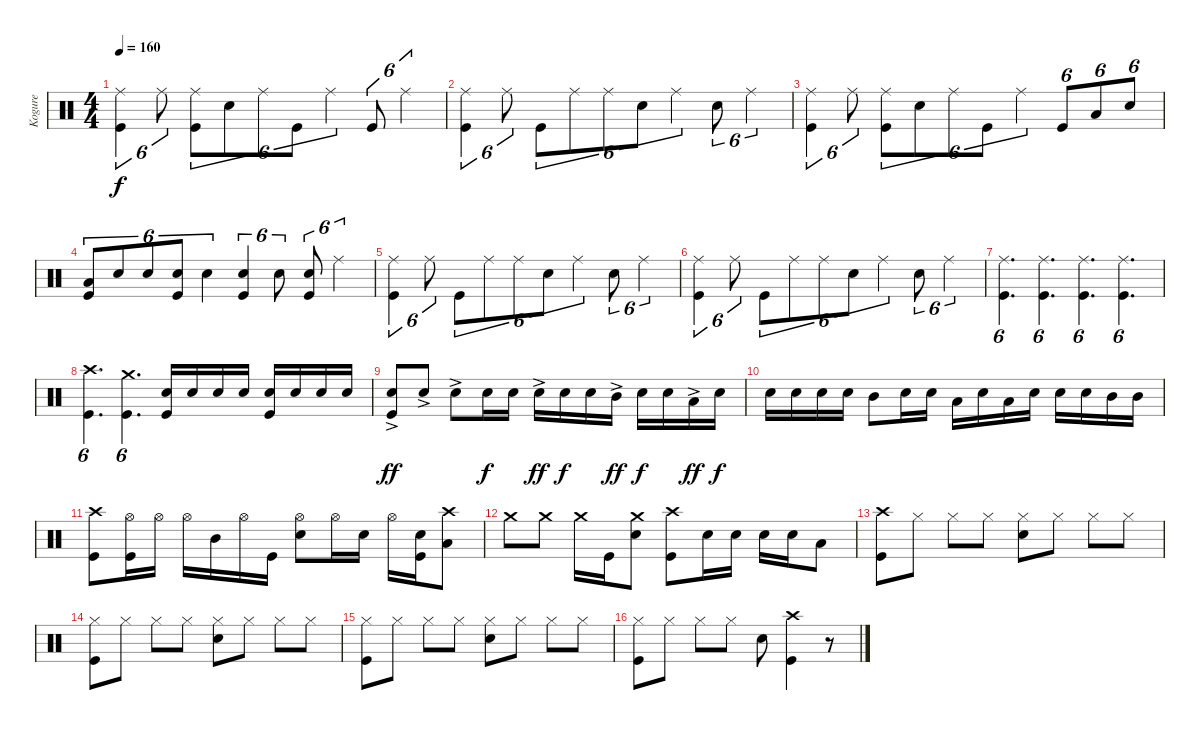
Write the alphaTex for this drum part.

\track ("Kogure" "Kogure") {instrument percussion}
\staff {score}
\articulation defaults
\ts (4 4)
\tempo 160
\clef neutral
\ks c
("Ride (middle)" "Kick (hit)").4{tu (6 4) dy f} "Ride (middle)".8{tu (6 4)} ("Ride (middle)" "Kick (hit)").8{tu (6 4)} "Snare (hit) 2".8{tu (6 4)} "Ride (middle)".8{tu (6 4)} "Kick (hit)".8{tu (6 4)} "Ride (middle)".4{tu (6 4)} "Kick (hit)".8{tu (6 4)} "Ride (middle)".4{tu (6 4)} |
("Ride (middle)" "Kick (hit)").4{tu (6 4)} "Ride (middle)".8{tu (6 4)} "Kick (hit)".8{tu (6 4)} "Ride (middle)".8{tu (6 4)} "Ride (middle)".8{tu (6 4)} "Snare (hit) 2".8{tu (6 4)} "Ride (middle)".4{tu (6 4)} "Snare (hit) 2".8{tu (6 4)} "Ride (middle)".4{tu (6 4)} |
("Ride (middle)" "Kick (hit)").4{tu (6 4)} "Ride (middle)".8{tu (6 4)} ("Ride (middle)" "Kick (hit)").8{tu (6 4)} "Snare (hit) 2".8{tu (6 4)} "Ride (middle)".8{tu (6 4)} "Kick (hit)".8{tu (6 4)} "Ride (middle)".4{tu (6 4)} "Kick (hit)".8{tu (6 4)} "Low Tom (hit)".8{tu (6 4)} "Snare (hit) 2".8{tu (6 4)} |
("Low Tom (hit)" "Kick (hit)").8{tu (6 4)} "Snare (hit) 2".8{tu (6 4)} "Snare (hit) 2".8{tu (6 4)} ("Snare (hit) 2" "Kick (hit)").8{tu (6 4)} "Snare (hit) 2".4{tu (6 4)} ("Snare (hit) 2" "Kick (hit)").4{tu (6 4)} "Snare (hit) 2".8{tu (6 4)} ("Snare (hit) 2" "Kick (hit)").8{tu (6 4)} "Ride (middle)".4{tu (6 4)} |
("Ride (middle)" "Kick (hit)").4{tu (6 4)} "Ride (middle)".8{tu (6 4)} "Kick (hit)".8{tu (6 4)} "Ride (middle)".8{tu (6 4)} "Ride (middle)".8{tu (6 4)} "Snare (hit) 2".8{tu (6 4)} "Ride (middle)".4{tu (6 4)} "Snare (hit) 2".8{tu (6 4)} "Ride (middle)".4{tu (6 4)} |
("Ride (middle)" "Kick (hit)").4{tu (6 4)} "Ride (middle)".8{tu (6 4)} "Kick (hit)".8{tu (6 4)} "Ride (middle)".8{tu (6 4)} "Ride (middle)".8{tu (6 4)} "Snare (hit) 2".8{tu (6 4)} "Ride (middle)".4{tu (6 4)} "Snare (hit) 2".8{tu (6 4)} "Ride (middle)".4{tu (6 4)} |
("Ride (middle)" "Kick (hit)").4{d tu (6 4)} ("Ride (middle)" "Kick (hit)").4{d tu (6 4)} ("Ride (middle)" "Kick (hit)").4{d tu (6 4)} ("Ride (middle)" "Kick (hit)").4{d tu (6 4)} |
("Crash high (hit)" "Kick (hit)").4{d tu (6 4)} ("Crash medium (hit)" "Kick (hit)").4{d tu (6 4)} ("Snare (hit) 2" "Kick (hit)").16 "Snare (hit) 2".16 "Snare (hit) 2".16 "Snare (hit) 2".16 ("Snare (hit) 2" "Kick (hit)").16 "Snare (hit) 2".16 "Snare (hit) 2".16 "Snare (hit) 2".16 |
("Kick (hit)" "Snare (hit) 2"{ac}).8{dy ff} "Snare (hit) 2"{ac}.8 "Snare (hit) 2"{ac}.8 "Snare (hit) 2".16{dy f} "Snare (hit) 2".16 "Snare (hit) 2"{ac}.16{dy ff} "Snare (hit) 2".16{dy f} "Snare (hit) 2".16 "Mid Tom (hit)"{ac}.16{dy ff} "Snare (hit) 2".16{dy f} "Snare (hit) 2".16 "Low Tom (hit)"{ac}.16{dy ff} "Snare (hit) 2".16{dy f} |
"Snare (hit) 2".16 "Snare (hit) 2".16 "Snare (hit) 2".16 "Snare (hit) 2".16 "Mid Tom (hit)".8 "Snare (hit) 2".16 "Snare (hit) 2".16 "Low Tom (hit)".16 "Snare (hit) 2".16 "Low Tom (hit)".16 "Snare (hit) 2".16 "Snare (hit) 2".16 "Snare (hit) 2".16 "Mid Tom (hit)".16 "Mid Tom (hit)".16 |
("Kick (hit)" "Crash high (hit)").8 ("Kick (hit)" "Hi-Hat (open)").16 "Hi-Hat (open)".16 "Hi-Hat (open)".16 "Mid Tom (hit)".16 "Hi-Hat (open)".16 "Kick (hit)".16 ("Hi-Hat (open)" "Snare (hit) 2").8 "Hi-Hat (open)".16 "Snare (hit) 2".16 "Hi-Hat (open)".16 ("Kick (hit)" "Snare (hit) 2").16 ("Low Tom (hit)" "Crash high (hit)").8 |
"Crash medium (hit)".8 "Crash medium (hit)".8 "Crash medium (hit)".16 "Kick (hit)".16 ("Crash medium (hit)" "Snare (hit) 2").8 ("Crash high (hit)" "Kick (hit)").8 "Snare (hit) 2".16 "Snare (hit) 2".16 "Snare (hit) 2".16 "Snare (hit) 2".16 "Low Tom (hit)".8 |
("Crash high (hit)" "Kick (hit)").8 "Hi-Hat (closed)".8 "Hi-Hat (closed)".8 "Hi-Hat (closed)".8 ("Hi-Hat (closed)" "Snare (hit) 2").8 "Hi-Hat (closed)".8 "Hi-Hat (closed)".8 "Hi-Hat (closed)".8 |
("Hi-Hat (closed)" "Kick (hit)").8 "Hi-Hat (closed)".8 "Hi-Hat (closed)".8 "Hi-Hat (closed)".8 ("Hi-Hat (closed)" "Snare (hit) 2").8 "Hi-Hat (closed)".8 "Hi-Hat (closed)".8 "Hi-Hat (closed)".8 |
("Hi-Hat (closed)" "Kick (hit)").8 "Hi-Hat (closed)".8 "Hi-Hat (closed)".8 "Hi-Hat (closed)".8 ("Hi-Hat (closed)" "Snare (hit) 2").8 "Hi-Hat (closed)".8 "Hi-Hat (closed)".8 "Hi-Hat (closed)".8 |
("Hi-Hat (closed)" "Kick (hit)").8 "Hi-Hat (closed)".8 "Hi-Hat (closed)".8 "Hi-Hat (closed)".8 "Snare (hit) 2".8 ("Crash high (hit)" "Kick (hit)").4 r.8
